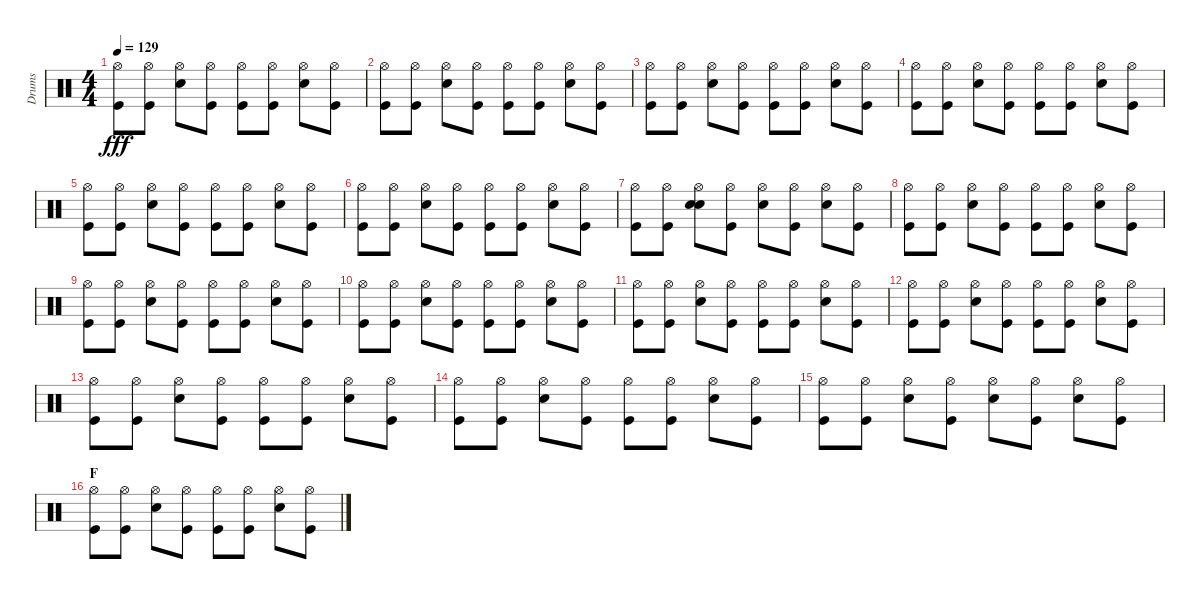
\track ("Drums" "Drums") {instrument percussion}
\staff {score}
\articulation defaults
\ts (4 4)
\tempo 129
\clef neutral
\ks c
("Kick (hit)" "Hi-Hat (open)").8{dy fff} ("Kick (hit)" "Hi-Hat (open)").8 ("Snare (hit) 2" "Hi-Hat (open)").8 ("Kick (hit)" "Hi-Hat (open)").8 ("Kick (hit)" "Hi-Hat (open)").8 ("Kick (hit)" "Hi-Hat (open)").8 ("Snare (hit) 2" "Hi-Hat (open)").8 ("Kick (hit)" "Hi-Hat (open)").8 |
("Kick (hit)" "Hi-Hat (open)").8 ("Kick (hit)" "Hi-Hat (open)").8 ("Snare (hit) 2" "Hi-Hat (open)").8 ("Kick (hit)" "Hi-Hat (open)").8 ("Kick (hit)" "Hi-Hat (open)").8 ("Kick (hit)" "Hi-Hat (open)").8 ("Snare (hit) 2" "Hi-Hat (open)").8 ("Kick (hit)" "Hi-Hat (open)").8 |
("Kick (hit)" "Hi-Hat (open)").8 ("Kick (hit)" "Hi-Hat (open)").8 ("Snare (hit) 2" "Hi-Hat (open)").8 ("Kick (hit)" "Hi-Hat (open)").8 ("Kick (hit)" "Hi-Hat (open)").8 ("Kick (hit)" "Hi-Hat (open)").8 ("Snare (hit) 2" "Hi-Hat (open)").8 ("Kick (hit)" "Hi-Hat (open)").8 |
("Kick (hit)" "Hi-Hat (open)").8 ("Kick (hit)" "Hi-Hat (open)").8 ("Snare (hit) 2" "Hi-Hat (open)").8 ("Kick (hit)" "Hi-Hat (open)").8 ("Kick (hit)" "Hi-Hat (open)").8 ("Kick (hit)" "Hi-Hat (open)").8 ("Snare (hit) 2" "Hi-Hat (open)").8 ("Kick (hit)" "Hi-Hat (open)").8 |
("Kick (hit)" "Hi-Hat (open)").8 ("Kick (hit)" "Hi-Hat (open)").8 ("Snare (hit) 2" "Hi-Hat (open)").8 ("Kick (hit)" "Hi-Hat (open)").8 ("Kick (hit)" "Hi-Hat (open)").8 ("Kick (hit)" "Hi-Hat (open)").8 ("Snare (hit) 2" "Hi-Hat (open)").8 ("Kick (hit)" "Hi-Hat (open)").8 |
("Kick (hit)" "Hi-Hat (open)").8 ("Kick (hit)" "Hi-Hat (open)").8 ("Snare (hit) 2" "Hi-Hat (open)").8 ("Kick (hit)" "Hi-Hat (open)").8 ("Kick (hit)" "Hi-Hat (open)").8 ("Kick (hit)" "Hi-Hat (open)").8 ("Snare (hit) 2" "Hi-Hat (open)").8 ("Kick (hit)" "Hi-Hat (open)").8 |
("Kick (hit)" "Hi-Hat (open)").8 ("Kick (hit)" "Hi-Hat (open)").8 ("Snare (hit) 2" "Hi-Hat (open)" "Snare (hit) 2").8 ("Kick (hit)" "Hi-Hat (open)").8 ("Snare (hit) 2" "Hi-Hat (open)").8 ("Kick (hit)" "Hi-Hat (open)").8 ("Snare (hit) 2" "Hi-Hat (open)").8 ("Kick (hit)" "Hi-Hat (open)").8 |
("Kick (hit)" "Hi-Hat (open)").8 ("Kick (hit)" "Hi-Hat (open)").8 ("Snare (hit) 2" "Hi-Hat (open)").8 ("Kick (hit)" "Hi-Hat (open)").8 ("Kick (hit)" "Hi-Hat (open)").8 ("Kick (hit)" "Hi-Hat (open)").8 ("Snare (hit) 2" "Hi-Hat (open)").8 ("Kick (hit)" "Hi-Hat (open)").8 |
("Kick (hit)" "Hi-Hat (open)").8 ("Kick (hit)" "Hi-Hat (open)").8 ("Snare (hit) 2" "Hi-Hat (open)").8 ("Kick (hit)" "Hi-Hat (open)").8 ("Kick (hit)" "Hi-Hat (open)").8 ("Kick (hit)" "Hi-Hat (open)").8 ("Snare (hit) 2" "Hi-Hat (open)").8 ("Kick (hit)" "Hi-Hat (open)").8 |
("Kick (hit)" "Hi-Hat (open)").8 ("Kick (hit)" "Hi-Hat (open)").8 ("Snare (hit) 2" "Hi-Hat (open)").8 ("Kick (hit)" "Hi-Hat (open)").8 ("Kick (hit)" "Hi-Hat (open)").8 ("Kick (hit)" "Hi-Hat (open)").8 ("Snare (hit) 2" "Hi-Hat (open)").8 ("Kick (hit)" "Hi-Hat (open)").8 |
("Kick (hit)" "Hi-Hat (open)").8 ("Kick (hit)" "Hi-Hat (open)").8 ("Snare (hit) 2" "Hi-Hat (open)").8 ("Kick (hit)" "Hi-Hat (open)").8 ("Kick (hit)" "Hi-Hat (open)").8 ("Kick (hit)" "Hi-Hat (open)").8 ("Snare (hit) 2" "Hi-Hat (open)").8 ("Kick (hit)" "Hi-Hat (open)").8 |
("Kick (hit)" "Hi-Hat (open)").8 ("Kick (hit)" "Hi-Hat (open)").8 ("Snare (hit) 2" "Hi-Hat (open)").8 ("Kick (hit)" "Hi-Hat (open)").8 ("Kick (hit)" "Hi-Hat (open)").8 ("Kick (hit)" "Hi-Hat (open)").8 ("Snare (hit) 2" "Hi-Hat (open)").8 ("Kick (hit)" "Hi-Hat (open)").8 |
("Kick (hit)" "Hi-Hat (open)").8 ("Kick (hit)" "Hi-Hat (open)").8 ("Snare (hit) 2" "Hi-Hat (open)").8 ("Kick (hit)" "Hi-Hat (open)").8 ("Kick (hit)" "Hi-Hat (open)").8 ("Kick (hit)" "Hi-Hat (open)").8 ("Snare (hit) 2" "Hi-Hat (open)").8 ("Kick (hit)" "Hi-Hat (open)").8 |
("Kick (hit)" "Hi-Hat (open)").8 ("Kick (hit)" "Hi-Hat (open)").8 ("Snare (hit) 2" "Hi-Hat (open)").8 ("Kick (hit)" "Hi-Hat (open)").8 ("Kick (hit)" "Hi-Hat (open)").8 ("Kick (hit)" "Hi-Hat (open)").8 ("Snare (hit) 2" "Hi-Hat (open)").8 ("Kick (hit)" "Hi-Hat (open)").8 |
("Kick (hit)" "Hi-Hat (open)").8 ("Kick (hit)" "Hi-Hat (open)").8 ("Snare (hit) 2" "Hi-Hat (open)").8 ("Kick (hit)" "Hi-Hat (open)").8 ("Snare (hit) 2" "Hi-Hat (open)").8 ("Kick (hit)" "Hi-Hat (open)").8 ("Snare (hit) 2" "Hi-Hat (open)").8 ("Kick (hit)" "Hi-Hat (open)").8 |
\section ("" "F")
("Kick (hit)" "Hi-Hat (open)").8 ("Kick (hit)" "Hi-Hat (open)").8 ("Snare (hit) 2" "Hi-Hat (open)").8 ("Kick (hit)" "Hi-Hat (open)").8 ("Kick (hit)" "Hi-Hat (open)").8 ("Kick (hit)" "Hi-Hat (open)").8 ("Snare (hit) 2" "Hi-Hat (open)").8 ("Kick (hit)" "Hi-Hat (open)").8
